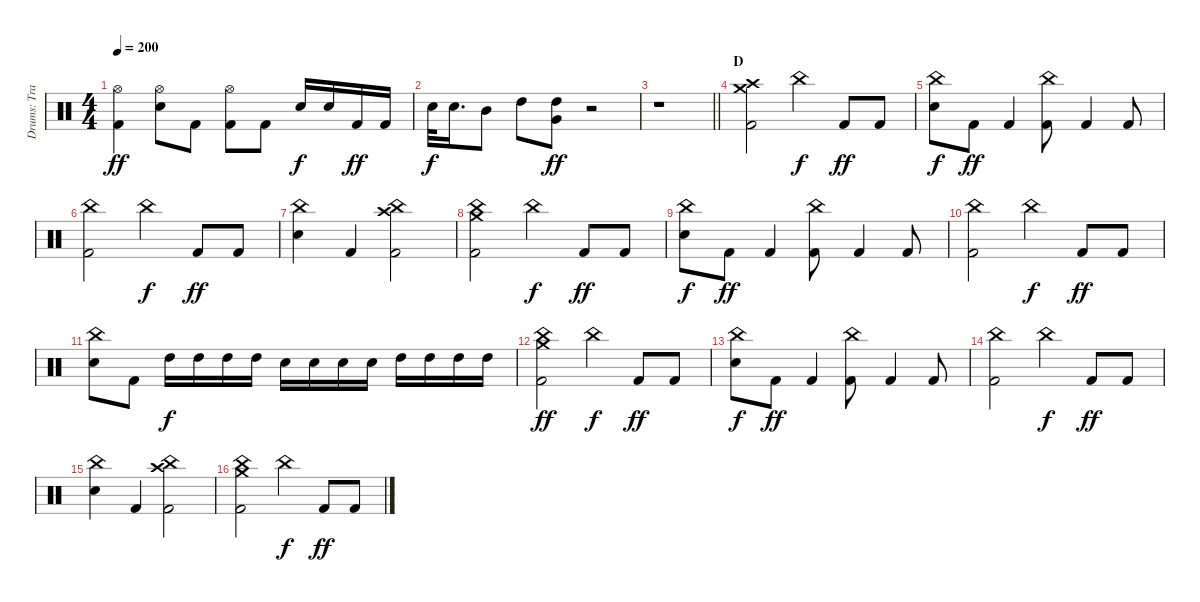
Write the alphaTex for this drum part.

\track ("Drums: Travis Clarke" "Drums: Tra") {instrument percussion}
\staff {score}
\articulation defaults
\ts (4 4)
\tempo 200
\clef neutral
\ks c
("Kick (hit) 2" "Hi-Hat (open)").4{dy ff} ("Snare (hit) 2" "Hi-Hat (open)").8 "Kick (hit) 2".8 ("Kick (hit) 2" "Hi-Hat (open)").8 "Kick (hit) 2".8 "Snare (hit) 2".16{dy f} "Snare (hit) 2".16 "Kick (hit) 2".16{dy ff} "Kick (hit) 2".16 |
"Snare (hit) 2".32{dy f} "Snare (hit) 2".16{d} "Mid Tom (hit)".8 "High Tom (hit)".8 ("Very Low Tom (hit)" "High Tom (hit)").8{dy ff} r.2 |
\barLineRight lightlight
r.1 |
\section ("" "D")
("Kick (hit) 2" "Crash high (hit)" "Crash medium (hit)").2 "China (hit)".4{dy f} "Kick (hit) 2".8{dy ff} "Kick (hit) 2".8 |
("Snare (hit) 2" "China (hit)").8{dy f} "Kick (hit) 2".8{dy ff} "Kick (hit) 2".4 ("Kick (hit) 2" "China (hit)").8 "Kick (hit) 2".4 "Kick (hit) 2".8 |
("Kick (hit) 2" "China (hit)").2 "China (hit)".4{dy f} "Kick (hit) 2".8{dy ff} "Kick (hit) 2".8 |
("Snare (hit) 2" "China (hit)").4 "Kick (hit) 2".4 ("Kick (hit) 2" "China (hit)" "Crash high (hit)").2 |
("Kick (hit) 2" "China (hit)" "Crash medium (hit)").2 "China (hit)".4{dy f} "Kick (hit) 2".8{dy ff} "Kick (hit) 2".8 |
("Snare (hit) 2" "China (hit)").8{dy f} "Kick (hit) 2".8{dy ff} "Kick (hit) 2".4 ("Kick (hit) 2" "China (hit)").8 "Kick (hit) 2".4 "Kick (hit) 2".8 |
("Kick (hit) 2" "China (hit)").2 "China (hit)".4{dy f} "Kick (hit) 2".8{dy ff} "Kick (hit) 2".8 |
("Snare (hit) 2" "China (hit)").8 "Kick (hit) 2".8 "High Tom (hit)".16{dy f} "High Tom (hit)".16 "High Tom (hit)".16 "High Tom (hit)".16 "Snare (hit) 2".16 "Snare (hit) 2".16 "Snare (hit) 2".16 "Snare (hit) 2".16 "High Tom (hit)".16 "High Tom (hit)".16 "High Tom (hit)".16 "High Tom (hit)".16 |
("Kick (hit) 2" "China (hit)" "Crash medium (hit)").2{dy ff} "China (hit)".4{dy f} "Kick (hit) 2".8{dy ff} "Kick (hit) 2".8 |
("Snare (hit) 2" "China (hit)").8{dy f} "Kick (hit) 2".8{dy ff} "Kick (hit) 2".4 ("Kick (hit) 2" "China (hit)").8 "Kick (hit) 2".4 "Kick (hit) 2".8 |
("Kick (hit) 2" "China (hit)").2 "China (hit)".4{dy f} "Kick (hit) 2".8{dy ff} "Kick (hit) 2".8 |
("Snare (hit) 2" "China (hit)").4 "Kick (hit) 2".4 ("Kick (hit) 2" "China (hit)" "Crash high (hit)").2 |
("Kick (hit) 2" "China (hit)" "Crash medium (hit)").2 "China (hit)".4{dy f} "Kick (hit) 2".8{dy ff} "Kick (hit) 2".8
